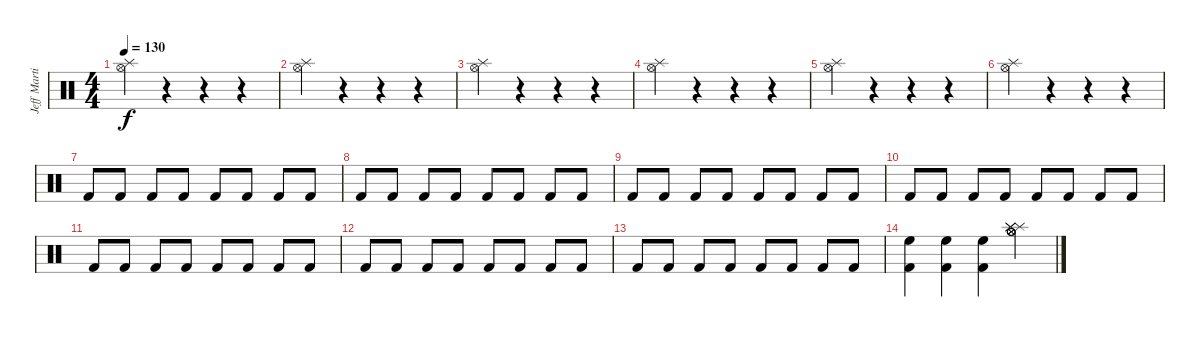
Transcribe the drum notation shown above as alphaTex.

\track ("Jeff Martin" "Jeff Marti") {instrument percussion}
\staff {score}
\articulation defaults
\ts (4 4)
\tempo 130
\clef neutral
\ks c
("Hi-Hat (open)" "Splash (hit)").4{dy f} r.4 r.4 r.4 |
("Hi-Hat (open)" "Splash (hit)").4 r.4 r.4 r.4 |
("Hi-Hat (open)" "Splash (hit)").4 r.4 r.4 r.4 |
("Hi-Hat (open)" "Splash (hit)").4 r.4 r.4 r.4 |
("Hi-Hat (open)" "Splash (hit)").4 r.4 r.4 r.4 |
("Hi-Hat (open)" "Splash (hit)").4 r.4 r.4 r.4 |
"Kick (hit) 2".8 "Kick (hit) 2".8 "Kick (hit) 2".8 "Kick (hit) 2".8 "Kick (hit) 2".8 "Kick (hit) 2".8 "Kick (hit) 2".8 "Kick (hit) 2".8 |
"Kick (hit) 2".8 "Kick (hit) 2".8 "Kick (hit) 2".8 "Kick (hit) 2".8 "Kick (hit) 2".8 "Kick (hit) 2".8 "Kick (hit) 2".8 "Kick (hit) 2".8 |
"Kick (hit) 2".8 "Kick (hit) 2".8 "Kick (hit) 2".8 "Kick (hit) 2".8 "Kick (hit) 2".8 "Kick (hit) 2".8 "Kick (hit) 2".8 "Kick (hit) 2".8 |
"Kick (hit) 2".8 "Kick (hit) 2".8 "Kick (hit) 2".8 "Kick (hit) 2".8 "Kick (hit) 2".8 "Kick (hit) 2".8 "Kick (hit) 2".8 "Kick (hit) 2".8 |
"Kick (hit) 2".8 "Kick (hit) 2".8 "Kick (hit) 2".8 "Kick (hit) 2".8 "Kick (hit) 2".8 "Kick (hit) 2".8 "Kick (hit) 2".8 "Kick (hit) 2".8 |
"Kick (hit) 2".8 "Kick (hit) 2".8 "Kick (hit) 2".8 "Kick (hit) 2".8 "Kick (hit) 2".8 "Kick (hit) 2".8 "Kick (hit) 2".8 "Kick (hit) 2".8 |
"Kick (hit) 2".8 "Kick (hit) 2".8 "Kick (hit) 2".8 "Kick (hit) 2".8 "Kick (hit) 2".8 "Kick (hit) 2".8 "Kick (hit) 2".8 "Kick (hit) 2".8 |
("High Floor Tom (hit)" "Kick (hit) 2").4 ("High Floor Tom (hit)" "Kick (hit) 2").4 ("High Floor Tom (hit)" "Kick (hit) 2").4 ("Hi-Hat (open)" "Hi-Hat (open)" "Hi-Hat (open)" "Splash (hit)" "Splash (hit)" "Splash (hit)").4
